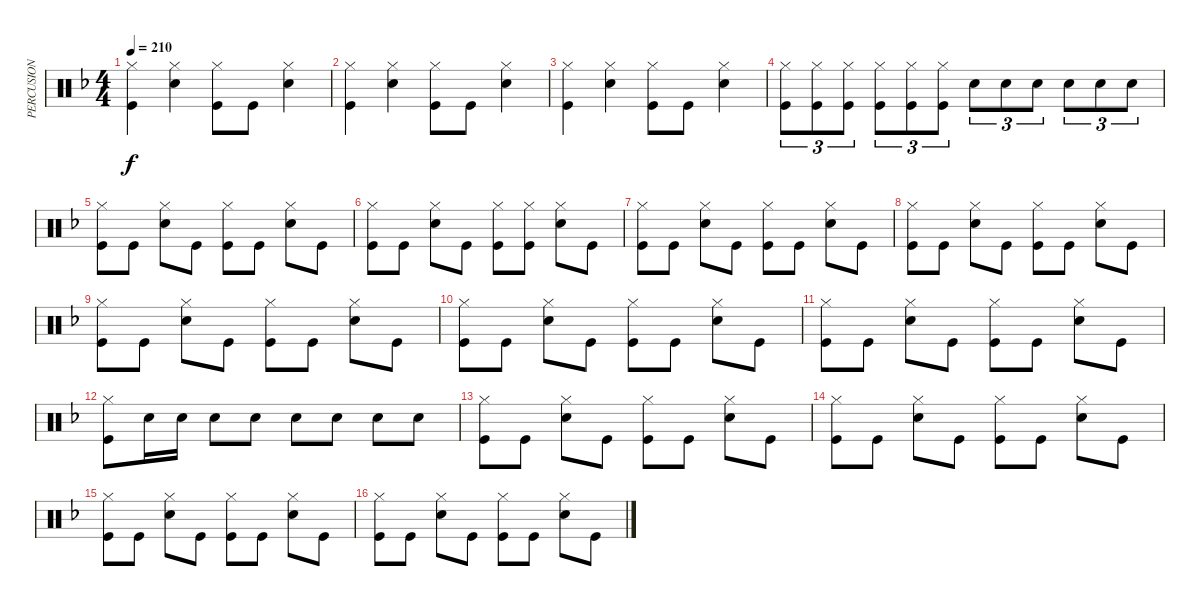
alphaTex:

\track ("PERCUSION" "PERCUSION") {instrument percussion}
\staff {score}
\articulation defaults
\ts (4 4)
\tempo 210
\clef neutral
\ks f
("Hi-Hat (closed)" "Kick (hit)").4{dy f} ("Hi-Hat (closed)" "Snare (hit) 2").4 ("Hi-Hat (closed)" "Kick (hit)").8 "Kick (hit)".8 ("Hi-Hat (closed)" "Snare (hit) 2").4 |
("Hi-Hat (closed)" "Kick (hit)").4 ("Hi-Hat (closed)" "Snare (hit) 2").4 ("Hi-Hat (closed)" "Kick (hit)").8 "Kick (hit)".8 ("Hi-Hat (closed)" "Snare (hit) 2").4 |
("Hi-Hat (closed)" "Kick (hit)").4 ("Hi-Hat (closed)" "Snare (hit) 2").4 ("Hi-Hat (closed)" "Kick (hit)").8 "Kick (hit)".8 ("Hi-Hat (closed)" "Snare (hit) 2").4 |
("Hi-Hat (closed)" "Kick (hit)").8{tu (3 2)} ("Hi-Hat (closed)" "Kick (hit)").8{tu (3 2)} ("Hi-Hat (closed)" "Kick (hit)").8{tu (3 2)} ("Hi-Hat (closed)" "Kick (hit)").8{tu (3 2)} ("Hi-Hat (closed)" "Kick (hit)").8{tu (3 2)} ("Hi-Hat (closed)" "Kick (hit)").8{tu (3 2)} "Snare (hit) 2".8{tu (3 2)} "Snare (hit) 2".8{tu (3 2)} "Snare (hit) 2".8{tu (3 2)} "Snare (hit) 2".8{tu (3 2)} "Snare (hit) 2".8{tu (3 2)} "Snare (hit) 2".8{tu (3 2)} |
("Hi-Hat (closed)" "Kick (hit)").8 "Kick (hit)".8 ("Hi-Hat (closed)" "Snare (hit) 2").8 "Kick (hit)".8 ("Hi-Hat (closed)" "Kick (hit)").8 "Kick (hit)".8 ("Hi-Hat (closed)" "Snare (hit) 2").8 "Kick (hit)".8 |
("Hi-Hat (closed)" "Kick (hit)").8 "Kick (hit)".8 ("Hi-Hat (closed)" "Snare (hit) 2").8 "Kick (hit)".8 ("Hi-Hat (closed)" "Kick (hit)").8 ("Hi-Hat (closed)" "Kick (hit)").8 ("Hi-Hat (closed)" "Snare (hit) 2").8 "Kick (hit)".8 |
("Hi-Hat (closed)" "Kick (hit)").8 "Kick (hit)".8 ("Hi-Hat (closed)" "Snare (hit) 2").8 "Kick (hit)".8 ("Hi-Hat (closed)" "Kick (hit)").8 "Kick (hit)".8 ("Hi-Hat (closed)" "Snare (hit) 2").8 "Kick (hit)".8 |
("Hi-Hat (closed)" "Kick (hit)").8 "Kick (hit)".8 ("Hi-Hat (closed)" "Snare (hit) 2").8 "Kick (hit)".8 ("Hi-Hat (closed)" "Kick (hit)").8 "Kick (hit)".8 ("Hi-Hat (closed)" "Snare (hit) 2").8 "Kick (hit)".8 |
("Hi-Hat (closed)" "Kick (hit)").8 "Kick (hit)".8 ("Hi-Hat (closed)" "Snare (hit) 2").8 "Kick (hit)".8 ("Hi-Hat (closed)" "Kick (hit)").8 "Kick (hit)".8 ("Hi-Hat (closed)" "Snare (hit) 2").8 "Kick (hit)".8 |
("Hi-Hat (closed)" "Kick (hit)").8 "Kick (hit)".8 ("Hi-Hat (closed)" "Snare (hit) 2").8 "Kick (hit)".8 ("Hi-Hat (closed)" "Kick (hit)").8 "Kick (hit)".8 ("Hi-Hat (closed)" "Snare (hit) 2").8 "Kick (hit)".8 |
("Hi-Hat (closed)" "Kick (hit)").8 "Kick (hit)".8 ("Hi-Hat (closed)" "Snare (hit) 2").8 "Kick (hit)".8 ("Hi-Hat (closed)" "Kick (hit)").8 "Kick (hit)".8 ("Hi-Hat (closed)" "Snare (hit) 2").8 "Kick (hit)".8 |
("Hi-Hat (closed)" "Kick (hit)").8 "Snare (hit) 2".16 "Snare (hit) 2".16 "Snare (hit) 2".8 "Snare (hit) 2".8 "Snare (hit) 2".8 "Snare (hit) 2".8 "Snare (hit) 2".8 "Snare (hit) 2".8 |
("Hi-Hat (closed)" "Kick (hit)").8 "Kick (hit)".8 ("Hi-Hat (closed)" "Snare (hit) 2").8 "Kick (hit)".8 ("Hi-Hat (closed)" "Kick (hit)").8 "Kick (hit)".8 ("Hi-Hat (closed)" "Snare (hit) 2").8 "Kick (hit)".8 |
("Hi-Hat (closed)" "Kick (hit)").8 "Kick (hit)".8 ("Hi-Hat (closed)" "Snare (hit) 2").8 "Kick (hit)".8 ("Hi-Hat (closed)" "Kick (hit)").8 "Kick (hit)".8 ("Hi-Hat (closed)" "Snare (hit) 2").8 "Kick (hit)".8 |
("Hi-Hat (closed)" "Kick (hit)").8 "Kick (hit)".8 ("Hi-Hat (closed)" "Snare (hit) 2").8 "Kick (hit)".8 ("Hi-Hat (closed)" "Kick (hit)").8 "Kick (hit)".8 ("Hi-Hat (closed)" "Snare (hit) 2").8 "Kick (hit)".8 |
("Hi-Hat (closed)" "Kick (hit)").8 "Kick (hit)".8 ("Hi-Hat (closed)" "Snare (hit) 2").8 "Kick (hit)".8 ("Hi-Hat (closed)" "Kick (hit)").8 "Kick (hit)".8 ("Hi-Hat (closed)" "Snare (hit) 2").8 "Kick (hit)".8
